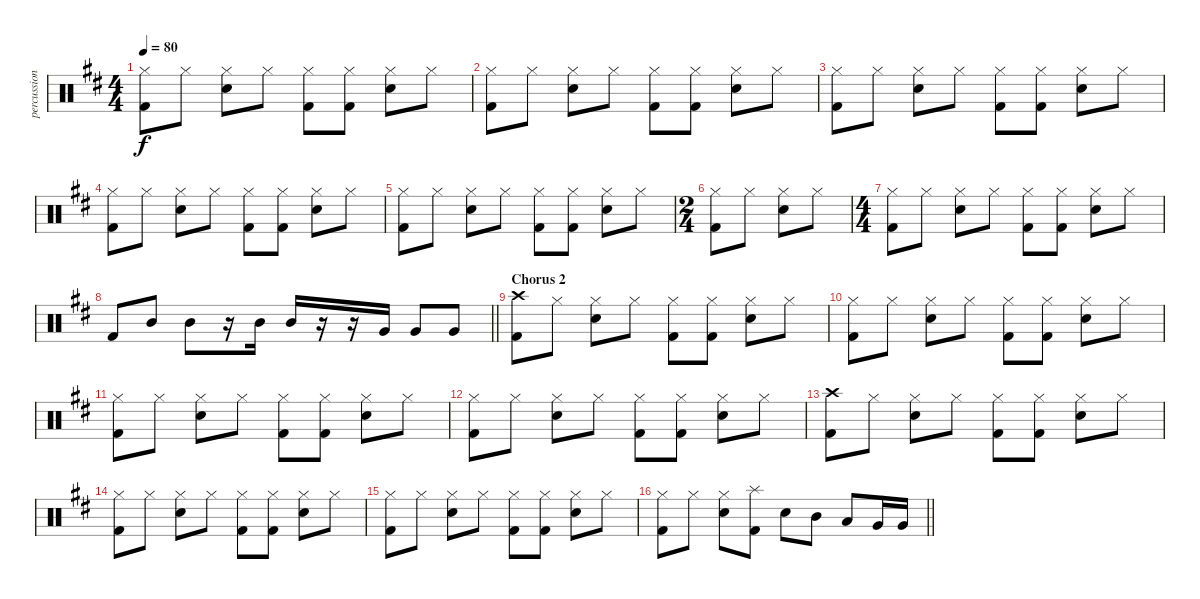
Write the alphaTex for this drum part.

\track ("percussion" "percussion") {instrument percussion}
\staff {score}
\articulation defaults
\ts (4 4)
\tempo 80
\clef neutral
\ks d
("Hi-Hat (closed)" "Kick (hit) 2").8{dy f} "Hi-Hat (closed)".8 ("Snare (hit) 2" "Hi-Hat (closed)").8 "Hi-Hat (closed)".8 ("Hi-Hat (closed)" "Kick (hit) 2").8 ("Hi-Hat (closed)" "Kick (hit) 2").8 ("Snare (hit) 2" "Hi-Hat (closed)").8 "Hi-Hat (closed)".8 |
("Hi-Hat (closed)" "Kick (hit) 2").8 "Hi-Hat (closed)".8 ("Snare (hit) 2" "Hi-Hat (closed)").8 "Hi-Hat (closed)".8 ("Hi-Hat (closed)" "Kick (hit) 2").8 ("Hi-Hat (closed)" "Kick (hit) 2").8 ("Snare (hit) 2" "Hi-Hat (closed)").8 "Hi-Hat (closed)".8 |
("Hi-Hat (closed)" "Kick (hit) 2").8 "Hi-Hat (closed)".8 ("Snare (hit) 2" "Hi-Hat (closed)").8 "Hi-Hat (closed)".8 ("Hi-Hat (closed)" "Kick (hit) 2").8 ("Hi-Hat (closed)" "Kick (hit) 2").8 ("Snare (hit) 2" "Hi-Hat (closed)").8 "Hi-Hat (closed)".8 |
("Hi-Hat (closed)" "Kick (hit) 2").8 "Hi-Hat (closed)".8 ("Snare (hit) 2" "Hi-Hat (closed)").8 "Hi-Hat (closed)".8 ("Hi-Hat (closed)" "Kick (hit) 2").8 ("Hi-Hat (closed)" "Kick (hit) 2").8 ("Snare (hit) 2" "Hi-Hat (closed)").8 "Hi-Hat (closed)".8 |
("Hi-Hat (closed)" "Kick (hit) 2").8 "Hi-Hat (closed)".8 ("Snare (hit) 2" "Hi-Hat (closed)").8 "Hi-Hat (closed)".8 ("Hi-Hat (closed)" "Kick (hit) 2").8 ("Hi-Hat (closed)" "Kick (hit) 2").8 ("Snare (hit) 2" "Hi-Hat (closed)").8 "Hi-Hat (closed)".8 |
\ts (2 4)
("Hi-Hat (closed)" "Kick (hit) 2").8 "Hi-Hat (closed)".8 ("Snare (hit) 2" "Hi-Hat (closed)").8 "Hi-Hat (closed)".8 |
\ts (4 4)
("Hi-Hat (closed)" "Kick (hit) 2").8 "Hi-Hat (closed)".8 ("Snare (hit) 2" "Hi-Hat (closed)").8 "Hi-Hat (closed)".8 ("Hi-Hat (closed)" "Kick (hit) 2").8 ("Hi-Hat (closed)" "Kick (hit) 2").8 ("Snare (hit) 2" "Hi-Hat (closed)").8 "Hi-Hat (closed)".8 |
\barLineRight lightlight "Kick (hit) 2".8 "Mid Tom (hit)".8 "Mid Tom (hit)".8
r.16 "Mid Tom (hit)".16 "Mid Tom (hit)".16 r.16 r.16 "Very Low Tom (hit)".16 "Very Low Tom (hit)".8 "Very Low Tom (hit)".8 |
\section ("" "Chorus 2")
("Crash high (hit)" "Kick (hit) 2").8 "Hi-Hat (closed)".8 ("Snare (hit) 2" "Hi-Hat (closed)").8 "Hi-Hat (closed)".8 ("Hi-Hat (closed)" "Kick (hit) 2").8 ("Hi-Hat (closed)" "Kick (hit) 2").8 ("Snare (hit) 2" "Hi-Hat (closed)").8 "Hi-Hat (closed)".8 |
("Hi-Hat (closed)" "Kick (hit) 2").8 "Hi-Hat (closed)".8 ("Snare (hit) 2" "Hi-Hat (closed)").8 "Hi-Hat (closed)".8 ("Hi-Hat (closed)" "Kick (hit) 2").8 ("Hi-Hat (closed)" "Kick (hit) 2").8 ("Snare (hit) 2" "Hi-Hat (closed)").8 "Hi-Hat (closed)".8 |
("Hi-Hat (closed)" "Kick (hit) 2").8 "Hi-Hat (closed)".8 ("Snare (hit) 2" "Hi-Hat (closed)").8 "Hi-Hat (closed)".8 ("Hi-Hat (closed)" "Kick (hit) 2").8 ("Hi-Hat (closed)" "Kick (hit) 2").8 ("Snare (hit) 2" "Hi-Hat (closed)").8 "Hi-Hat (closed)".8 |
("Hi-Hat (closed)" "Kick (hit) 2").8 "Hi-Hat (closed)".8 ("Snare (hit) 2" "Hi-Hat (closed)").8 "Hi-Hat (closed)".8 ("Hi-Hat (closed)" "Kick (hit) 2").8 ("Hi-Hat (closed)" "Kick (hit) 2").8 ("Snare (hit) 2" "Hi-Hat (closed)").8 "Hi-Hat (closed)".8 |
("Crash high (hit)" "Kick (hit) 2").8 "Hi-Hat (closed)".8 ("Snare (hit) 2" "Hi-Hat (closed)").8 "Hi-Hat (closed)".8 ("Hi-Hat (closed)" "Kick (hit) 2").8 ("Hi-Hat (closed)" "Kick (hit) 2").8 ("Snare (hit) 2" "Hi-Hat (closed)").8 "Hi-Hat (closed)".8 |
("Hi-Hat (closed)" "Kick (hit) 2").8 "Hi-Hat (closed)".8 ("Snare (hit) 2" "Hi-Hat (closed)").8 "Hi-Hat (closed)".8 ("Hi-Hat (closed)" "Kick (hit) 2").8 ("Hi-Hat (closed)" "Kick (hit) 2").8 ("Snare (hit) 2" "Hi-Hat (closed)").8 "Hi-Hat (closed)".8 |
("Hi-Hat (closed)" "Kick (hit) 2").8 "Hi-Hat (closed)".8 ("Snare (hit) 2" "Hi-Hat (closed)").8 "Hi-Hat (closed)".8 ("Hi-Hat (closed)" "Kick (hit) 2").8 ("Hi-Hat (closed)" "Kick (hit) 2").8 ("Snare (hit) 2" "Hi-Hat (closed)").8 "Hi-Hat (closed)".8 |
\barLineRight lightlight
("Hi-Hat (closed)" "Kick (hit) 2").8 "Hi-Hat (closed)".8 ("Snare (hit) 2" "Hi-Hat (closed)").8 ("Splash (hit)" "Kick (hit) 2").8 "Snare (hit) 2".8 "Mid Tom (hit)".8 "Low Tom (hit)".8 "Very Low Tom (hit)".16 "Very Low Tom (hit)".16
